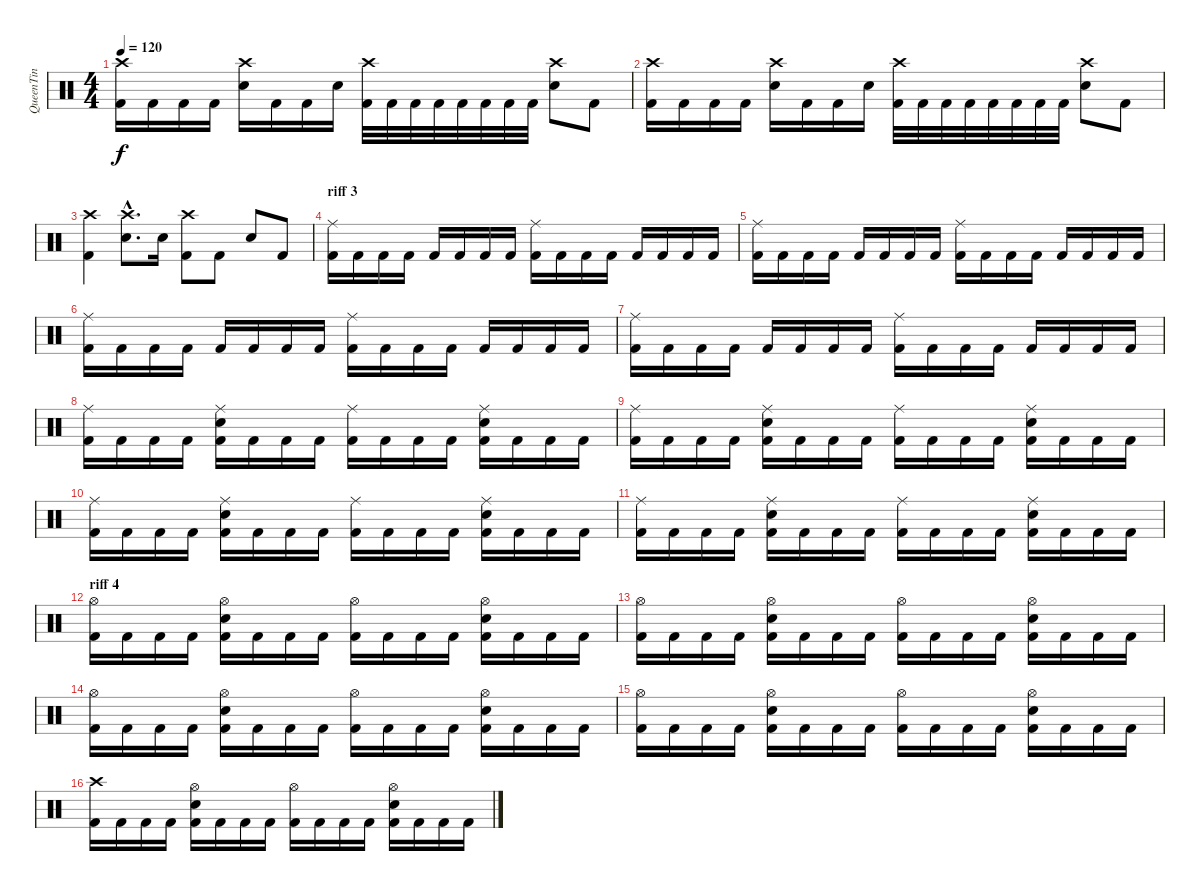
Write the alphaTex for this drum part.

\track ("QueenTin" "QueenTin") {instrument percussion}
\staff {score}
\articulation defaults
\ts (4 4)
\tempo 120
\clef neutral
\ks c
("Crash high (hit)" "Kick (hit) 2").16{dy f} "Kick (hit) 2".16 "Kick (hit) 2".16 "Kick (hit) 2".16 ("Crash high (hit)" "Snare (hit) 2").16 "Kick (hit) 2".16 "Kick (hit) 2".16 "Snare (hit) 2".16 ("Crash high (hit)" "Kick (hit) 2").32 "Kick (hit) 2".32 "Kick (hit) 2".32 "Kick (hit) 2".32 "Kick (hit) 2".32 "Kick (hit) 2".32 "Kick (hit) 2".32 "Kick (hit) 2".32 ("Crash high (hit)" "Snare (hit) 2").8 "Kick (hit) 2".8 |
("Crash high (hit)" "Kick (hit) 2").16 "Kick (hit) 2".16 "Kick (hit) 2".16 "Kick (hit) 2".16 ("Crash high (hit)" "Snare (hit) 2").16 "Kick (hit) 2".16 "Kick (hit) 2".16 "Snare (hit) 2".16 ("Crash high (hit)" "Kick (hit) 2").32 "Kick (hit) 2".32 "Kick (hit) 2".32 "Kick (hit) 2".32 "Kick (hit) 2".32 "Kick (hit) 2".32 "Kick (hit) 2".32 "Kick (hit) 2".32 ("Crash high (hit)" "Snare (hit) 2").8 "Kick (hit) 2".8 |
("Crash high (hit)" "Kick (hit) 2").4 ("Crash high (hit)"{hac} "Snare (hit) 2"{hac}).8{d} "Snare (hit) 2".16 ("Crash high (hit)" "Kick (hit) 2").8 "Kick (hit) 2".8 "Snare (hit) 2".8 "Kick (hit) 2".8 |
\section ("" "riff 3")
("Ride (middle)" "Kick (hit) 2").16 "Kick (hit) 2".16 "Kick (hit) 2".16 "Kick (hit) 2".16 "Kick (hit) 2".16 "Kick (hit) 2".16 "Kick (hit) 2".16 "Kick (hit) 2".16 ("Ride (middle)" "Kick (hit) 2").16 "Kick (hit) 2".16 "Kick (hit) 2".16 "Kick (hit) 2".16 "Kick (hit) 2".16 "Kick (hit) 2".16 "Kick (hit) 2".16 "Kick (hit) 2".16 |
("Ride (middle)" "Kick (hit) 2").16 "Kick (hit) 2".16 "Kick (hit) 2".16 "Kick (hit) 2".16 "Kick (hit) 2".16 "Kick (hit) 2".16 "Kick (hit) 2".16 "Kick (hit) 2".16 ("Ride (middle)" "Kick (hit) 2").16 "Kick (hit) 2".16 "Kick (hit) 2".16 "Kick (hit) 2".16 "Kick (hit) 2".16 "Kick (hit) 2".16 "Kick (hit) 2".16 "Kick (hit) 2".16 |
("Ride (middle)" "Kick (hit) 2").16 "Kick (hit) 2".16 "Kick (hit) 2".16 "Kick (hit) 2".16 "Kick (hit) 2".16 "Kick (hit) 2".16 "Kick (hit) 2".16 "Kick (hit) 2".16 ("Ride (middle)" "Kick (hit) 2").16 "Kick (hit) 2".16 "Kick (hit) 2".16 "Kick (hit) 2".16 "Kick (hit) 2".16 "Kick (hit) 2".16 "Kick (hit) 2".16 "Kick (hit) 2".16 |
("Ride (middle)" "Kick (hit) 2").16 "Kick (hit) 2".16 "Kick (hit) 2".16 "Kick (hit) 2".16 "Kick (hit) 2".16 "Kick (hit) 2".16 "Kick (hit) 2".16 "Kick (hit) 2".16 ("Ride (middle)" "Kick (hit) 2").16 "Kick (hit) 2".16 "Kick (hit) 2".16 "Kick (hit) 2".16 "Kick (hit) 2".16 "Kick (hit) 2".16 "Kick (hit) 2".16 "Kick (hit) 2".16 |
("Ride (middle)" "Kick (hit) 2").16 "Kick (hit) 2".16 "Kick (hit) 2".16 "Kick (hit) 2".16 ("Ride (middle)" "Snare (hit) 2" "Kick (hit) 2").16 "Kick (hit) 2".16 "Kick (hit) 2".16 "Kick (hit) 2".16 ("Ride (middle)" "Kick (hit) 2").16 "Kick (hit) 2".16 "Kick (hit) 2".16 "Kick (hit) 2".16 ("Ride (middle)" "Snare (hit) 2" "Kick (hit) 2").16 "Kick (hit) 2".16 "Kick (hit) 2".16 "Kick (hit) 2".16 |
("Ride (middle)" "Kick (hit) 2").16 "Kick (hit) 2".16 "Kick (hit) 2".16 "Kick (hit) 2".16 ("Ride (middle)" "Snare (hit) 2" "Kick (hit) 2").16 "Kick (hit) 2".16 "Kick (hit) 2".16 "Kick (hit) 2".16 ("Ride (middle)" "Kick (hit) 2").16 "Kick (hit) 2".16 "Kick (hit) 2".16 "Kick (hit) 2".16 ("Ride (middle)" "Snare (hit) 2" "Kick (hit) 2").16 "Kick (hit) 2".16 "Kick (hit) 2".16 "Kick (hit) 2".16 |
("Ride (middle)" "Kick (hit) 2").16 "Kick (hit) 2".16 "Kick (hit) 2".16 "Kick (hit) 2".16 ("Ride (middle)" "Snare (hit) 2" "Kick (hit) 2").16 "Kick (hit) 2".16 "Kick (hit) 2".16 "Kick (hit) 2".16 ("Ride (middle)" "Kick (hit) 2").16 "Kick (hit) 2".16 "Kick (hit) 2".16 "Kick (hit) 2".16 ("Ride (middle)" "Snare (hit) 2" "Kick (hit) 2").16 "Kick (hit) 2".16 "Kick (hit) 2".16 "Kick (hit) 2".16 |
("Ride (middle)" "Kick (hit) 2").16 "Kick (hit) 2".16 "Kick (hit) 2".16 "Kick (hit) 2".16 ("Ride (middle)" "Snare (hit) 2" "Kick (hit) 2").16 "Kick (hit) 2".16 "Kick (hit) 2".16 "Kick (hit) 2".16 ("Ride (middle)" "Kick (hit) 2").16 "Kick (hit) 2".16 "Kick (hit) 2".16 "Kick (hit) 2".16 ("Ride (middle)" "Snare (hit) 2" "Kick (hit) 2").16 "Kick (hit) 2".16 "Kick (hit) 2".16 "Kick (hit) 2".16 |
\section ("" "riff 4")
("Hi-Hat (open)" "Kick (hit) 2").16 "Kick (hit) 2".16 "Kick (hit) 2".16 "Kick (hit) 2".16 ("Hi-Hat (open)" "Snare (hit) 2" "Kick (hit) 2").16 "Kick (hit) 2".16 "Kick (hit) 2".16 "Kick (hit) 2".16 ("Hi-Hat (open)" "Kick (hit) 2").16 "Kick (hit) 2".16 "Kick (hit) 2".16 "Kick (hit) 2".16 ("Hi-Hat (open)" "Snare (hit) 2" "Kick (hit) 2").16 "Kick (hit) 2".16 "Kick (hit) 2".16 "Kick (hit) 2".16 |
("Hi-Hat (open)" "Kick (hit) 2").16 "Kick (hit) 2".16 "Kick (hit) 2".16 "Kick (hit) 2".16 ("Hi-Hat (open)" "Snare (hit) 2" "Kick (hit) 2").16 "Kick (hit) 2".16 "Kick (hit) 2".16 "Kick (hit) 2".16 ("Hi-Hat (open)" "Kick (hit) 2").16 "Kick (hit) 2".16 "Kick (hit) 2".16 "Kick (hit) 2".16 ("Hi-Hat (open)" "Snare (hit) 2" "Kick (hit) 2").16 "Kick (hit) 2".16 "Kick (hit) 2".16 "Kick (hit) 2".16 |
("Hi-Hat (open)" "Kick (hit) 2").16 "Kick (hit) 2".16 "Kick (hit) 2".16 "Kick (hit) 2".16 ("Hi-Hat (open)" "Snare (hit) 2" "Kick (hit) 2").16 "Kick (hit) 2".16 "Kick (hit) 2".16 "Kick (hit) 2".16 ("Hi-Hat (open)" "Kick (hit) 2").16 "Kick (hit) 2".16 "Kick (hit) 2".16 "Kick (hit) 2".16 ("Hi-Hat (open)" "Snare (hit) 2" "Kick (hit) 2").16 "Kick (hit) 2".16 "Kick (hit) 2".16 "Kick (hit) 2".16 |
("Hi-Hat (open)" "Kick (hit) 2").16 "Kick (hit) 2".16 "Kick (hit) 2".16 "Kick (hit) 2".16 ("Hi-Hat (open)" "Snare (hit) 2" "Kick (hit) 2").16 "Kick (hit) 2".16 "Kick (hit) 2".16 "Kick (hit) 2".16 ("Hi-Hat (open)" "Kick (hit) 2").16 "Kick (hit) 2".16 "Kick (hit) 2".16 "Kick (hit) 2".16 ("Hi-Hat (open)" "Snare (hit) 2" "Kick (hit) 2").16 "Kick (hit) 2".16 "Kick (hit) 2".16 "Kick (hit) 2".16 |
("Crash high (hit)" "Kick (hit) 2").16 "Kick (hit) 2".16 "Kick (hit) 2".16 "Kick (hit) 2".16 ("Hi-Hat (open)" "Snare (hit) 2" "Kick (hit) 2").16 "Kick (hit) 2".16 "Kick (hit) 2".16 "Kick (hit) 2".16 ("Hi-Hat (open)" "Kick (hit) 2").16 "Kick (hit) 2".16 "Kick (hit) 2".16 "Kick (hit) 2".16 ("Hi-Hat (open)" "Snare (hit) 2" "Kick (hit) 2").16 "Kick (hit) 2".16 "Kick (hit) 2".16 "Kick (hit) 2".16
